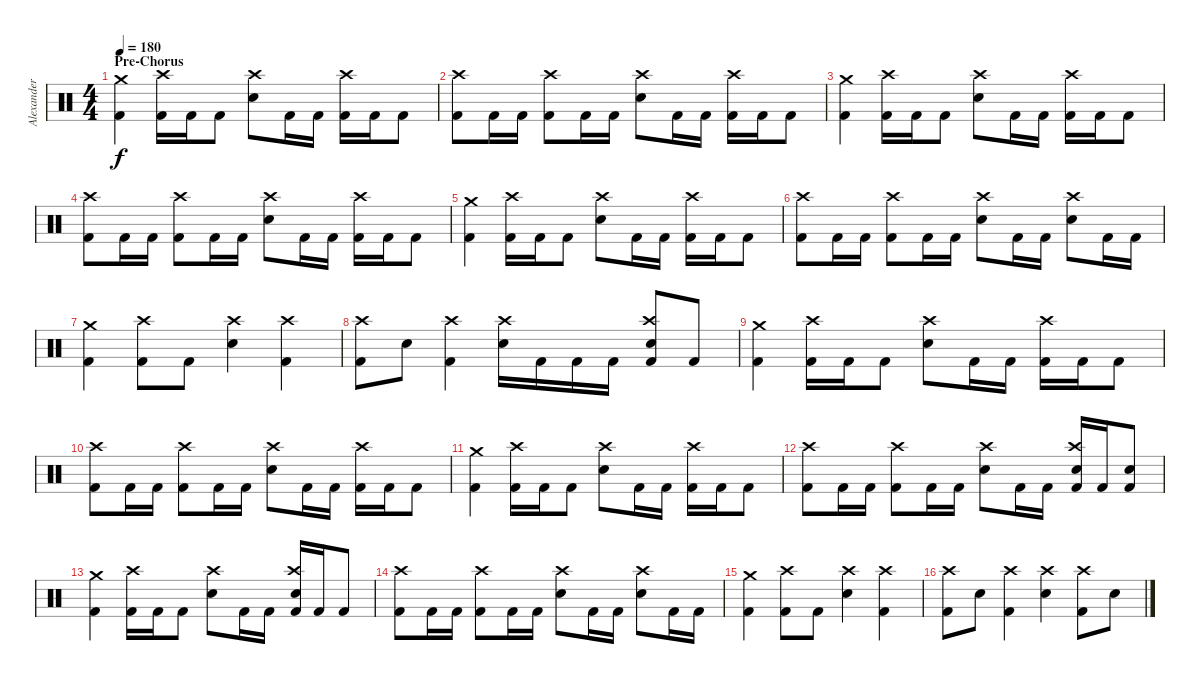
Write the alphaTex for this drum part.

\track ("Alexander Sveningsson" "Alexander ") {instrument percussion}
\staff {score}
\articulation defaults
\ts (4 4)
\section ("" "Pre-Chorus")
\tempo 180
\clef neutral
\ks c
("Crash medium (hit)" "Kick (hit) 2").4{dy f} ("Crash high (hit)" "Kick (hit) 2").16 "Kick (hit) 2".16 "Kick (hit) 2".8 ("Crash high (hit)" "Electric Snare (hit)").8 "Kick (hit) 2".16 "Kick (hit) 2".16 ("Crash high (hit)" "Kick (hit) 2").16 "Kick (hit) 2".16 "Kick (hit) 2".8 |
("Crash high (hit)" "Kick (hit) 2").8 "Kick (hit) 2".16 "Kick (hit) 2".16 ("Crash high (hit)" "Kick (hit) 2").8 "Kick (hit) 2".16 "Kick (hit) 2".16 ("Crash high (hit)" "Electric Snare (hit)").8 "Kick (hit) 2".16 "Kick (hit) 2".16 ("Crash high (hit)" "Kick (hit) 2").16 "Kick (hit) 2".16 "Kick (hit) 2".8 |
("Crash medium (hit)" "Kick (hit) 2").4 ("Crash high (hit)" "Kick (hit) 2").16 "Kick (hit) 2".16 "Kick (hit) 2".8 ("Crash high (hit)" "Electric Snare (hit)").8 "Kick (hit) 2".16 "Kick (hit) 2".16 ("Crash high (hit)" "Kick (hit) 2").16 "Kick (hit) 2".16 "Kick (hit) 2".8 |
("Crash high (hit)" "Kick (hit) 2").8 "Kick (hit) 2".16 "Kick (hit) 2".16 ("Crash high (hit)" "Kick (hit) 2").8 "Kick (hit) 2".16 "Kick (hit) 2".16 ("Crash high (hit)" "Electric Snare (hit)").8 "Kick (hit) 2".16 "Kick (hit) 2".16 ("Crash high (hit)" "Kick (hit) 2").16 "Kick (hit) 2".16 "Kick (hit) 2".8 |
("Crash medium (hit)" "Kick (hit) 2").4 ("Crash high (hit)" "Kick (hit) 2").16 "Kick (hit) 2".16 "Kick (hit) 2".8 ("Crash high (hit)" "Electric Snare (hit)").8 "Kick (hit) 2".16 "Kick (hit) 2".16 ("Crash high (hit)" "Kick (hit) 2").16 "Kick (hit) 2".16 "Kick (hit) 2".8 |
("Crash high (hit)" "Kick (hit) 2").8 "Kick (hit) 2".16 "Kick (hit) 2".16 ("Crash high (hit)" "Kick (hit) 2").8 "Kick (hit) 2".16 "Kick (hit) 2".16 ("Crash high (hit)" "Electric Snare (hit)").8 "Kick (hit) 2".16 "Kick (hit) 2".16 ("Crash high (hit)" "Electric Snare (hit)").8 "Kick (hit) 2".16 "Kick (hit) 2".16 |
("Crash medium (hit)" "Kick (hit) 2").4 ("Crash high (hit)" "Kick (hit) 2").8 "Kick (hit) 2".8 ("Crash high (hit)" "Electric Snare (hit)").4 ("Crash high (hit)" "Kick (hit) 2").4 |
("Crash high (hit)" "Kick (hit) 2").8 "Electric Snare (hit)".8 ("Crash high (hit)" "Kick (hit) 2").4 ("Crash high (hit)" "Electric Snare (hit)").16 "Kick (hit) 2".16 "Kick (hit) 2".16 "Kick (hit) 2".16 ("Crash high (hit)" "Electric Snare (hit)" "Kick (hit) 2").8 "Kick (hit) 2".8 |
("Crash medium (hit)" "Kick (hit) 2").4 ("Crash high (hit)" "Kick (hit) 2").16 "Kick (hit) 2".16 "Kick (hit) 2".8 ("Crash high (hit)" "Electric Snare (hit)").8 "Kick (hit) 2".16 "Kick (hit) 2".16 ("Crash high (hit)" "Kick (hit) 2").16 "Kick (hit) 2".16 "Kick (hit) 2".8 |
("Crash high (hit)" "Kick (hit) 2").8 "Kick (hit) 2".16 "Kick (hit) 2".16 ("Crash high (hit)" "Kick (hit) 2").8 "Kick (hit) 2".16 "Kick (hit) 2".16 ("Crash high (hit)" "Electric Snare (hit)").8 "Kick (hit) 2".16 "Kick (hit) 2".16 ("Crash high (hit)" "Kick (hit) 2").16 "Kick (hit) 2".16 "Kick (hit) 2".8 |
("Crash medium (hit)" "Kick (hit) 2").4 ("Crash high (hit)" "Kick (hit) 2").16 "Kick (hit) 2".16 "Kick (hit) 2".8 ("Crash high (hit)" "Electric Snare (hit)").8 "Kick (hit) 2".16 "Kick (hit) 2".16 ("Crash high (hit)" "Kick (hit) 2").16 "Kick (hit) 2".16 "Kick (hit) 2".8 |
("Crash high (hit)" "Kick (hit) 2").8 "Kick (hit) 2".16 "Kick (hit) 2".16 ("Crash high (hit)" "Kick (hit) 2").8 "Kick (hit) 2".16 "Kick (hit) 2".16 ("Crash high (hit)" "Electric Snare (hit)").8 "Kick (hit) 2".16 "Kick (hit) 2".16 ("Crash high (hit)" "Electric Snare (hit)" "Kick (hit) 2").16 "Kick (hit) 2".16 ("Electric Snare (hit)" "Kick (hit) 2").8 |
("Crash medium (hit)" "Kick (hit) 2").4 ("Crash high (hit)" "Kick (hit) 2").16 "Kick (hit) 2".16 "Kick (hit) 2".8 ("Crash high (hit)" "Electric Snare (hit)").8 "Kick (hit) 2".16 "Kick (hit) 2".16 ("Crash high (hit)" "Electric Snare (hit)" "Kick (hit) 2").16 "Kick (hit) 2".16 "Kick (hit) 2".8 |
("Crash high (hit)" "Kick (hit) 2").8 "Kick (hit) 2".16 "Kick (hit) 2".16 ("Crash high (hit)" "Kick (hit) 2").8 "Kick (hit) 2".16 "Kick (hit) 2".16 ("Crash high (hit)" "Electric Snare (hit)").8 "Kick (hit) 2".16 "Kick (hit) 2".16 ("Crash high (hit)" "Electric Snare (hit)").8 "Kick (hit) 2".16 "Kick (hit) 2".16 |
("Crash medium (hit)" "Kick (hit) 2").4 ("Crash high (hit)" "Kick (hit) 2").8 "Kick (hit) 2".8 ("Crash high (hit)" "Electric Snare (hit)").4 ("Crash high (hit)" "Kick (hit) 2").4 |
("Crash high (hit)" "Kick (hit) 2").8 "Electric Snare (hit)".8 ("Crash high (hit)" "Kick (hit) 2").4 ("Crash high (hit)" "Electric Snare (hit)").4 ("Crash high (hit)" "Kick (hit) 2").8 "Electric Snare (hit)".8
